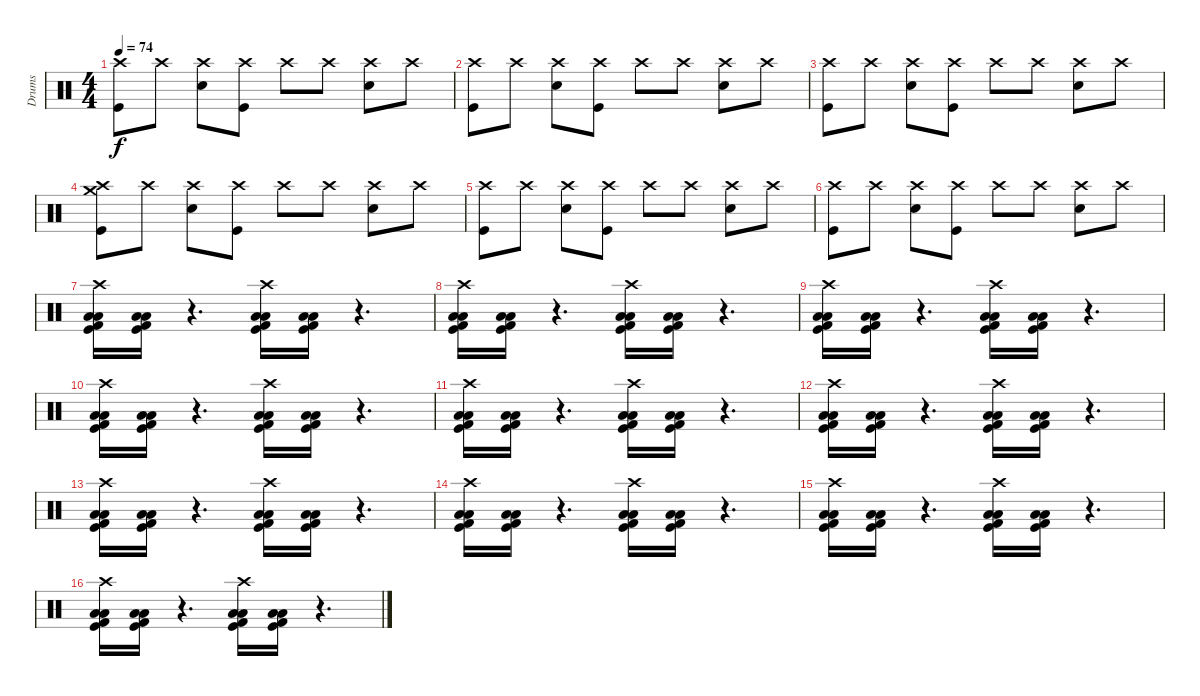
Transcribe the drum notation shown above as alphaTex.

\track ("Drums" "Drums") {instrument percussion}
\staff {score}
\articulation defaults
\ts (4 4)
\tempo 74
\clef neutral
\ks c
("Crash high (hit)" "Kick (hit)").8{dy f} "Crash high (hit)".8 ("Crash high (hit)" "Snare (hit) 2").8 ("Crash high (hit)" "Kick (hit)").8 "Crash high (hit)".8 "Crash high (hit)".8 ("Crash high (hit)" "Snare (hit) 2").8 "Crash high (hit)".8 |
("Crash high (hit)" "Kick (hit)").8 "Crash high (hit)".8 ("Crash high (hit)" "Snare (hit) 2").8 ("Crash high (hit)" "Kick (hit)").8 "Crash high (hit)".8 "Crash high (hit)".8 ("Crash high (hit)" "Snare (hit) 2").8 "Crash high (hit)".8 |
("Crash high (hit)" "Kick (hit)").8 "Crash high (hit)".8 ("Crash high (hit)" "Snare (hit) 2").8 ("Crash high (hit)" "Kick (hit)").8 "Crash high (hit)".8 "Crash high (hit)".8 ("Crash high (hit)" "Snare (hit) 2").8 "Crash high (hit)".8 |
("Crash high (hit)" "Crash medium (hit)" "Kick (hit)").8 "Crash high (hit)".8 ("Crash high (hit)" "Snare (hit) 2").8 ("Crash high (hit)" "Kick (hit)").8 "Crash high (hit)".8 "Crash high (hit)".8 ("Crash high (hit)" "Snare (hit) 2").8 "Crash high (hit)".8 |
("Crash high (hit)" "Kick (hit)").8 "Crash high (hit)".8 ("Crash high (hit)" "Snare (hit) 2").8 ("Crash high (hit)" "Kick (hit)").8 "Crash high (hit)".8 "Crash high (hit)".8 ("Crash high (hit)" "Snare (hit) 2").8 "Crash high (hit)".8 |
("Crash high (hit)" "Kick (hit)").8 "Crash high (hit)".8 ("Crash high (hit)" "Snare (hit) 2").8 ("Crash high (hit)" "Kick (hit)").8 "Crash high (hit)".8 "Crash high (hit)".8 ("Crash high (hit)" "Snare (hit) 2").8 "Crash high (hit)".8 |
("Crash high (hit)" "Low Floor Tom (hit)" "Kick (hit) 2" "Kick (hit)" "Low Tom (hit)").16 ("Low Floor Tom (hit)" "Kick (hit) 2" "Kick (hit)" "Low Tom (hit)").16 r.4{d} ("Crash high (hit)" "Low Floor Tom (hit)" "Kick (hit) 2" "Kick (hit)" "Low Tom (hit)").16 ("Low Floor Tom (hit)" "Kick (hit) 2" "Kick (hit)" "Low Tom (hit)").16 r.4{d} |
("Crash high (hit)" "Low Floor Tom (hit)" "Kick (hit) 2" "Kick (hit)" "Low Tom (hit)").16 ("Low Floor Tom (hit)" "Kick (hit) 2" "Kick (hit)" "Low Tom (hit)").16 r.4{d} ("Crash high (hit)" "Low Floor Tom (hit)" "Kick (hit) 2" "Kick (hit)" "Low Tom (hit)").16 ("Low Floor Tom (hit)" "Kick (hit) 2" "Kick (hit)" "Low Tom (hit)").16 r.4{d} |
("Crash high (hit)" "Low Floor Tom (hit)" "Kick (hit) 2" "Kick (hit)" "Low Tom (hit)").16 ("Low Floor Tom (hit)" "Kick (hit) 2" "Kick (hit)" "Low Tom (hit)").16 r.4{d} ("Crash high (hit)" "Low Floor Tom (hit)" "Kick (hit) 2" "Kick (hit)" "Low Tom (hit)").16 ("Low Floor Tom (hit)" "Kick (hit) 2" "Kick (hit)" "Low Tom (hit)").16 r.4{d} |
("Crash high (hit)" "Low Floor Tom (hit)" "Kick (hit) 2" "Kick (hit)" "Low Tom (hit)").16 ("Low Floor Tom (hit)" "Kick (hit) 2" "Kick (hit)" "Low Tom (hit)").16 r.4{d} ("Crash high (hit)" "Low Floor Tom (hit)" "Kick (hit) 2" "Kick (hit)" "Low Tom (hit)").16 ("Low Floor Tom (hit)" "Kick (hit) 2" "Kick (hit)" "Low Tom (hit)").16 r.4{d} |
("Crash high (hit)" "Low Floor Tom (hit)" "Kick (hit) 2" "Kick (hit)" "Low Tom (hit)").16 ("Low Floor Tom (hit)" "Kick (hit) 2" "Kick (hit)" "Low Tom (hit)").16 r.4{d} ("Crash high (hit)" "Low Floor Tom (hit)" "Kick (hit) 2" "Kick (hit)" "Low Tom (hit)").16 ("Low Floor Tom (hit)" "Kick (hit) 2" "Kick (hit)" "Low Tom (hit)").16 r.4{d} |
("Crash high (hit)" "Low Floor Tom (hit)" "Kick (hit) 2" "Kick (hit)" "Low Tom (hit)").16 ("Low Floor Tom (hit)" "Kick (hit) 2" "Kick (hit)" "Low Tom (hit)").16 r.4{d} ("Crash high (hit)" "Low Floor Tom (hit)" "Kick (hit) 2" "Kick (hit)" "Low Tom (hit)").16 ("Low Floor Tom (hit)" "Kick (hit) 2" "Kick (hit)" "Low Tom (hit)").16 r.4{d} |
("Crash high (hit)" "Low Floor Tom (hit)" "Kick (hit) 2" "Kick (hit)" "Low Tom (hit)").16 ("Low Floor Tom (hit)" "Kick (hit) 2" "Kick (hit)" "Low Tom (hit)").16 r.4{d} ("Crash high (hit)" "Low Floor Tom (hit)" "Kick (hit) 2" "Kick (hit)" "Low Tom (hit)").16 ("Low Floor Tom (hit)" "Kick (hit) 2" "Kick (hit)" "Low Tom (hit)").16 r.4{d} |
("Crash high (hit)" "Low Floor Tom (hit)" "Kick (hit) 2" "Kick (hit)" "Low Tom (hit)").16 ("Low Floor Tom (hit)" "Kick (hit) 2" "Kick (hit)" "Low Tom (hit)").16 r.4{d} ("Crash high (hit)" "Low Floor Tom (hit)" "Kick (hit) 2" "Kick (hit)" "Low Tom (hit)").16 ("Low Floor Tom (hit)" "Kick (hit) 2" "Kick (hit)" "Low Tom (hit)").16 r.4{d} |
("Crash high (hit)" "Low Floor Tom (hit)" "Kick (hit) 2" "Kick (hit)" "Low Tom (hit)").16 ("Low Floor Tom (hit)" "Kick (hit) 2" "Kick (hit)" "Low Tom (hit)").16 r.4{d} ("Crash high (hit)" "Low Floor Tom (hit)" "Kick (hit) 2" "Kick (hit)" "Low Tom (hit)").16 ("Low Floor Tom (hit)" "Kick (hit) 2" "Kick (hit)" "Low Tom (hit)").16 r.4{d} |
("Crash high (hit)" "Low Floor Tom (hit)" "Kick (hit) 2" "Kick (hit)" "Low Tom (hit)").16 ("Low Floor Tom (hit)" "Kick (hit) 2" "Kick (hit)" "Low Tom (hit)").16 r.4{d} ("Crash high (hit)" "Low Floor Tom (hit)" "Kick (hit) 2" "Kick (hit)" "Low Tom (hit)").16 ("Low Floor Tom (hit)" "Kick (hit) 2" "Kick (hit)" "Low Tom (hit)").16 r.4{d}
